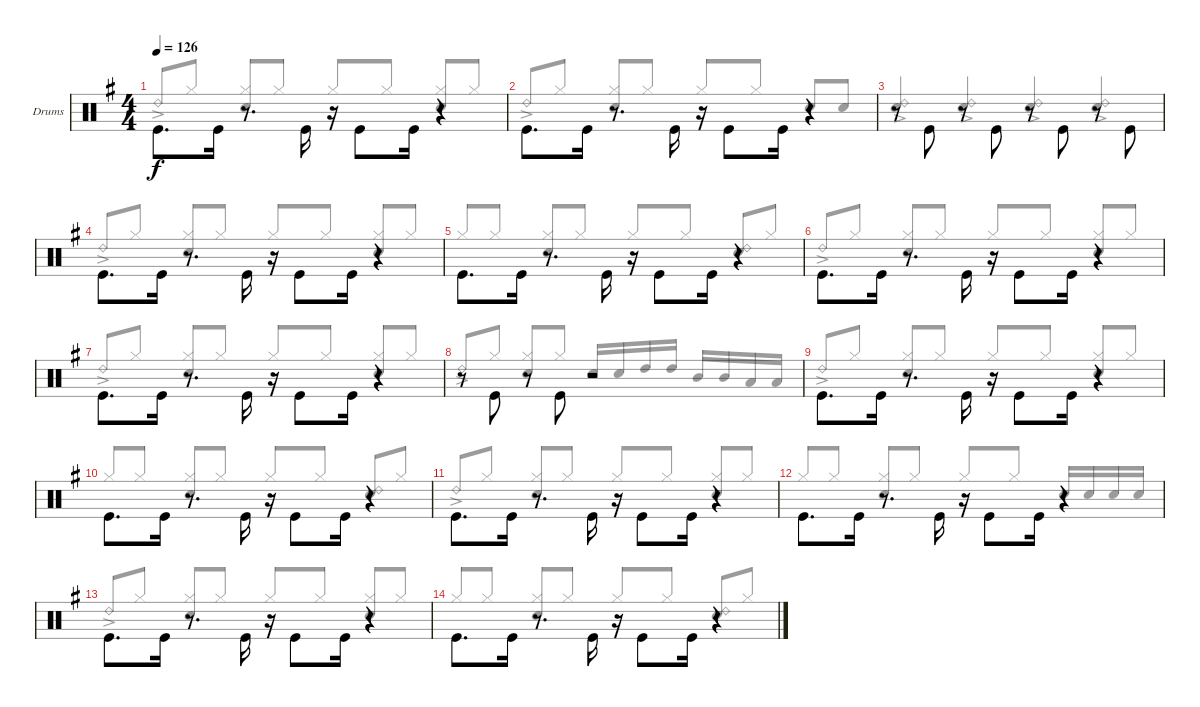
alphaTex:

\defaultSystemsLayout 4
\bracketExtendMode groupsimilarinstruments
\firstSystemTrackNameOrientation horizontal
\otherSystemsTrackNameOrientation horizontal
\track ("Drumkit" "Drums") {instrument percussion}
\staff {score}
\articulation defaults
\voice
\ts (4 4)
\tempo 126
\clef neutral
\scale
1.04288
\ks g "Kick (hit)".8{d dy f beam invert} "Kick (hit)".16
r.8{d beam invert} "Kick (hit)".16{beam invert} r.16{beam invert} "Kick (hit)".8{beam invert} "Kick (hit)".16 r.4{beam invert} |
\scale
0.957125 "Kick (hit)".8{d beam invert} "Kick (hit)".16 r.8{d beam invert} "Kick (hit)".16{beam invert} r.16{beam invert} "Kick (hit)".8{beam invert} "Kick (hit)".16 r.4{beam invert} |
\scale
1.04288 r.8 "Kick (hit)".8{beam invert} r.8 "Kick (hit)".8{beam invert} r.8{beam invert} "Kick (hit)".8{beam invert} r.8{beam invert} "Kick (hit)".8{beam invert} |
\scale
0.957125 "Kick (hit)".8{d beam invert} "Kick (hit)".16 r.8{d beam invert} "Kick (hit)".16{beam invert} r.16{beam invert} "Kick (hit)".8{beam invert} "Kick (hit)".16 r.4{beam invert} |
\scale
1.04288 "Kick (hit)".8{d beam invert} "Kick (hit)".16 r.8{d beam invert} "Kick (hit)".16{beam invert} r.16{beam invert} "Kick (hit)".8{beam invert} "Kick (hit)".16 r.4{beam invert} |
\scale
0.957125 "Kick (hit)".8{d beam invert} "Kick (hit)".16 r.8{d beam invert} "Kick (hit)".16{beam invert} r.16{beam invert} "Kick (hit)".8{beam invert} "Kick (hit)".16 r.4{beam invert} |
\scale
1.04288 "Kick (hit)".8{d beam invert} "Kick (hit)".16 r.8{d beam invert} "Kick (hit)".16{beam invert} r.16{beam invert} "Kick (hit)".8{beam invert} "Kick (hit)".16 r.4{beam invert} |
\scale
0.957125 r.8 "Kick (hit)".8{beam invert} r.8 "Kick (hit)".8{beam invert} r.2{beam invert} |
\scale
1.04288 "Kick (hit)".8{d beam invert} "Kick (hit)".16 r.8{d beam invert} "Kick (hit)".16{beam invert} r.16{beam invert} "Kick (hit)".8{beam invert} "Kick (hit)".16 r.4{beam invert} |
\scale
0.957125 "Kick (hit)".8{d beam invert} "Kick (hit)".16 r.8{d beam invert} "Kick (hit)".16{beam invert} r.16{beam invert} "Kick (hit)".8{beam invert} "Kick (hit)".16 r.4{beam invert} |
\scale
1.04288 "Kick (hit)".8{d beam invert} "Kick (hit)".16 r.8{d beam invert} "Kick (hit)".16{beam invert} r.16{beam invert} "Kick (hit)".8{beam invert} "Kick (hit)".16 r.4{beam invert} |
\scale
0.957125 "Kick (hit)".8{d beam invert} "Kick (hit)".16 r.8{d beam invert} "Kick (hit)".16{beam invert} r.16{beam invert} "Kick (hit)".8{beam invert} "Kick (hit)".16 r.4{beam invert} |
\scale
1.04288 "Kick (hit)".8{d beam invert} "Kick (hit)".16 r.8{d beam invert} "Kick (hit)".16{beam invert} r.16{beam invert} "Kick (hit)".8{beam invert} "Kick (hit)".16 r.4{beam invert} |
\scale
0.957125 "Kick (hit)".8{d beam invert} "Kick (hit)".16 r.8{d beam invert} "Kick (hit)".16{beam invert} r.16{beam invert} "Kick (hit)".8{beam invert} "Kick (hit)".16 r.4{beam invert}
\voice
\clef neutral
\ottava regular
\simile none
\scale
1.04288
\ks g "Ride (bell) 2"{ac}.8{dy f beam invert} "Hi-Hat (closed)".8
("Hi-Hat (closed)" "Snare (hit) 2").8{beam invert} "Hi-Hat (closed)".8 "Hi-Hat (closed)".8{beam invert} "Hi-Hat (closed)".8 ("Hi-Hat (closed)" "Snare (hit) 2").8{beam invert} "Hi-Hat (closed)".8 |
\scale
0.957125 "Ride (bell) 2"{ac}.8{beam invert} "Hi-Hat (closed)".8 ("Hi-Hat (closed)" "Snare (hit) 2").8{beam invert} "Hi-Hat (closed)".8 "Hi-Hat (closed)".8{beam invert} "Hi-Hat (closed)".8 "Snare (hit) 2".8{beam invert} "Snare (hit) 2".8 |
\scale
1.04288 ("Ride (bell) 2"{ac} "Snare (hit) 2"{ac}).4{beam invert} ("Snare (hit) 2"{ac} "Ride (bell) 2"{ac}).4{beam invert} ("Ride (bell) 2"{ac} "Snare (hit) 2"{ac}).4{beam invert} ("Snare (hit) 2"{ac} "Ride (bell) 2"{ac}).4{beam invert} |
\scale
0.957125 "Ride (bell) 2"{ac}.8{beam invert} "Hi-Hat (closed)".8 ("Hi-Hat (closed)" "Snare (hit) 2").8{beam invert} "Hi-Hat (closed)".8 "Hi-Hat (closed)".8{beam invert} "Hi-Hat (closed)".8 ("Hi-Hat (closed)" "Snare (hit) 2").8{beam invert} "Hi-Hat (closed)".8 |
\scale
1.04288 "Hi-Hat (closed)".8{beam invert} "Hi-Hat (closed)".8 ("Hi-Hat (closed)" "Snare (hit) 2").8{beam invert} "Hi-Hat (closed)".8 "Hi-Hat (closed)".8{beam invert} "Hi-Hat (closed)".8 ("Snare (hit) 2" "Ride (bell) 2").8{beam invert} "Hi-Hat (closed)".8 |
\scale
0.957125 "Ride (bell) 2"{ac}.8{beam invert} "Hi-Hat (closed)".8 ("Hi-Hat (closed)" "Snare (hit) 2").8{beam invert} "Hi-Hat (closed)".8 "Hi-Hat (closed)".8{beam invert} "Hi-Hat (closed)".8 ("Hi-Hat (closed)" "Snare (hit) 2").8{beam invert} "Hi-Hat (closed)".8 |
\scale
1.04288 "Ride (bell) 2"{ac}.8{beam invert} "Hi-Hat (closed)".8 ("Hi-Hat (closed)" "Snare (hit) 2").8{beam invert} "Hi-Hat (closed)".8 "Hi-Hat (closed)".8{beam invert} "Hi-Hat (closed)".8 ("Hi-Hat (closed)" "Snare (hit) 2").8{beam invert} "Hi-Hat (closed)".8 |
\scale
0.957125 "Ride (bell) 2"{ac}.8{beam invert} "Hi-Hat (closed)".8 ("Hi-Hat (closed)" "Snare (hit) 2").8{beam invert} "Hi-Hat (closed)".8 "Snare (hit) 2".16{beam invert} "Snare (hit) 2".16 "High Tom (hit)".16 "High Tom (hit)".16 "Mid Tom (hit)".16{beam invert} "Mid Tom (hit)".16 "Low Tom (hit)".16 "Low Tom (hit)".16 |
\scale
1.04288 "Ride (bell) 2"{ac}.8{beam invert} "Hi-Hat (closed)".8 ("Hi-Hat (closed)" "Snare (hit) 2").8{beam invert} "Hi-Hat (closed)".8 "Hi-Hat (closed)".8{beam invert} "Hi-Hat (closed)".8 ("Hi-Hat (closed)" "Snare (hit) 2").8{beam invert} "Hi-Hat (closed)".8 |
\scale
0.957125 "Hi-Hat (closed)".8{beam invert} "Hi-Hat (closed)".8 ("Hi-Hat (closed)" "Snare (hit) 2").8{beam invert} "Hi-Hat (closed)".8 "Hi-Hat (closed)".8{beam invert} "Hi-Hat (closed)".8 ("Snare (hit) 2" "Ride (bell) 2").8{beam invert} "Hi-Hat (closed)".8 |
\scale
1.04288 "Ride (bell) 2"{ac}.8{beam invert} "Hi-Hat (closed)".8 ("Hi-Hat (closed)" "Snare (hit) 2").8{beam invert} "Hi-Hat (closed)".8 "Hi-Hat (closed)".8{beam invert} "Hi-Hat (closed)".8 ("Hi-Hat (closed)" "Snare (hit) 2").8{beam invert} "Hi-Hat (closed)".8 |
\scale
0.957125 "Hi-Hat (closed)".8{beam invert} "Hi-Hat (closed)".8 ("Hi-Hat (closed)" "Snare (hit) 2").8{beam invert} "Hi-Hat (closed)".8 "Hi-Hat (closed)".8{beam invert} "Hi-Hat (closed)".8 "Snare (hit) 2".16{beam invert} "Snare (hit) 2".16 "Snare (hit) 2".16 "Snare (hit) 2".16 |
\scale
1.04288 "Ride (bell) 2"{ac}.8{beam invert} "Hi-Hat (closed)".8 ("Hi-Hat (closed)" "Snare (hit) 2").8{beam invert} "Hi-Hat (closed)".8 "Hi-Hat (closed)".8{beam invert} "Hi-Hat (closed)".8 ("Hi-Hat (closed)" "Snare (hit) 2").8{beam invert} "Hi-Hat (closed)".8 |
\scale
0.957125 "Hi-Hat (closed)".8{beam invert} "Hi-Hat (closed)".8 ("Hi-Hat (closed)" "Snare (hit) 2").8{beam invert} "Hi-Hat (closed)".8 "Hi-Hat (closed)".8{beam invert} "Hi-Hat (closed)".8 ("Snare (hit) 2" "Ride (bell) 2").8{beam invert} "Hi-Hat (closed)".8
